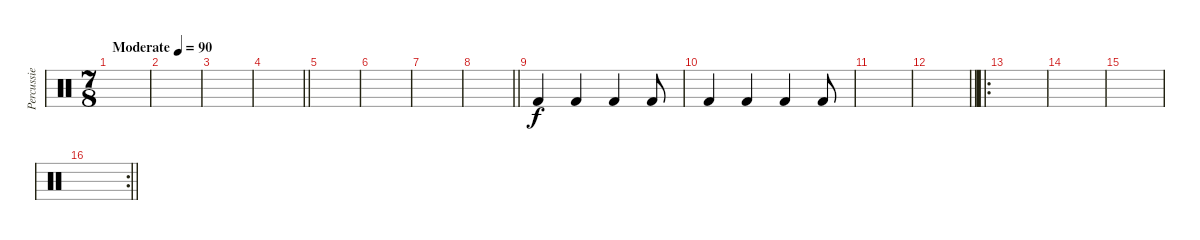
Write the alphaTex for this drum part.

\track ("Percussie" "Percussie") {instrument percussion}
\staff {score}
\articulation defaults
\ts (7 8)
\tempo (90 "Moderate")
\clef neutral
\ks c
|
|
|
\barLineRight lightlight
|
|
|
|
\barLineRight lightlight
|
"Kick (hit) 2".4 "Kick (hit) 2".4 "Kick (hit) 2".4 "Kick (hit) 2".8 |
"Kick (hit) 2".4 "Kick (hit) 2".4 "Kick (hit) 2".4 "Kick (hit) 2".8 |
|
\barLineRight lightlight
|
\ro
|
|
|
\rc 2
\barLineRight lightlight
